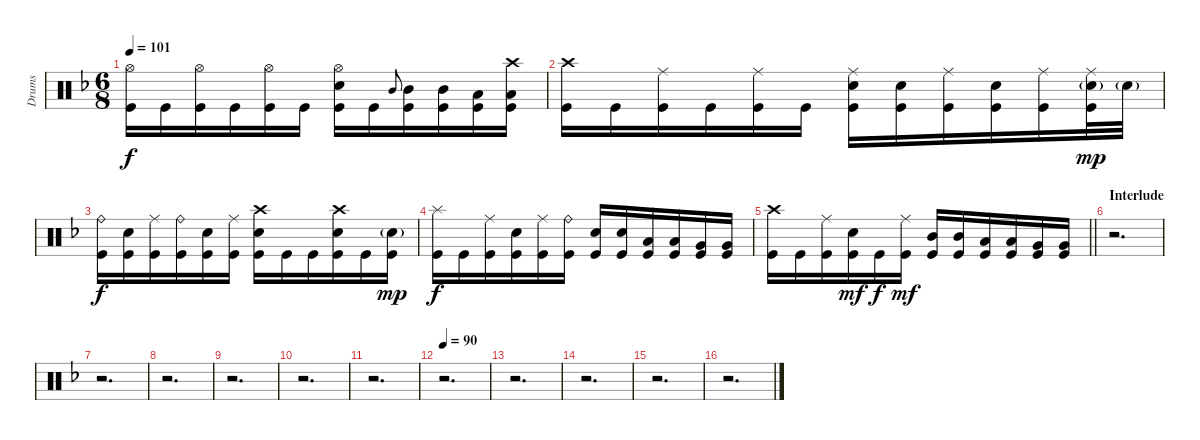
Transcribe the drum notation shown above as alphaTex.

\track ("Drums" "Drums") {instrument percussion bank 10}
\staff {score}
\articulation defaults
\ts (6 8)
\tempo 101
\clef neutral
\ks dminor
("Hi-Hat (open)" "Kick (hit)").16{dy f} "Kick (hit)".16 ("Hi-Hat (open)" "Kick (hit)").16 "Kick (hit)".16 ("Hi-Hat (open)" "Kick (hit)").16 "Kick (hit)".16 ("Hi-Hat (open)" "Electric Snare (hit)" "Kick (hit)").16 "Kick (hit)".16 "Mid Tom (hit)".8{gr onbeat} ("Mid Tom (hit)" "Kick (hit)").16 ("Mid Tom (hit)" "Kick (hit)").16 ("Low Tom (hit)" "Kick (hit)").16 ("Crash high (hit)" "Low Tom (hit)" "Kick (hit)").16 |
("Crash high (hit)" "Kick (hit)").16 "Kick (hit)".16 ("Ride (middle)" "Kick (hit)").16 "Kick (hit)".16 ("Ride (middle)" "Kick (hit)").16 "Kick (hit)".16 ("Ride (middle)" "Electric Snare (hit)" "Kick (hit)").16 ("Electric Snare (hit)" "Kick (hit)").16 ("Ride (middle)" "Kick (hit)").16 ("Electric Snare (hit)" "Kick (hit)").16 ("Ride (middle)" "Kick (hit)").16 ("Ride (middle)" "Electric Snare (hit)"{g} "Kick (hit)").32{dy mp} "Electric Snare (hit)"{g}.32 |
("Ride (bell)" "Kick (hit)").16{dy f} ("Electric Snare (hit)" "Kick (hit)").16 ("Ride (middle)" "Kick (hit)").16 ("Ride (bell)" "Kick (hit)").16 ("Electric Snare (hit)" "Kick (hit)").16 ("Ride (middle)" "Kick (hit)").16 ("Crash high (hit)" "Electric Snare (hit)" "Kick (hit)").16 "Kick (hit)".16 "Kick (hit)".16 ("Crash high (hit)" "Electric Snare (hit)" "Kick (hit)").16 "Kick (hit)".16 ("Electric Snare (hit)"{g} "Kick (hit)").16{dy mp} |
("Splash (hit)" "Kick (hit)").16{dy f} "Kick (hit)".16 ("Ride (middle)" "Kick (hit)").16 ("Electric Snare (hit)" "Kick (hit)").16 ("Ride (middle)" "Kick (hit)").16 ("Ride (bell)" "Kick (hit)").16 ("Electric Snare (hit)" "Kick (hit)").16 ("Electric Snare (hit)" "Kick (hit)").16 ("Low Tom (hit)" "Kick (hit)").16 ("Low Tom (hit)" "Kick (hit)").16 ("Very Low Tom (hit)" "Kick (hit)").16 ("Very Low Tom (hit)" "Kick (hit)").16 |
\barLineRight lightlight
("Crash high (hit)" "Kick (hit)").16 "Kick (hit)".16 ("Ride (middle)" "Kick (hit)").16 ("Electric Snare (hit)" "Kick (hit)").16{dy mf} "Kick (hit)".16{dy f} ("Ride (middle)" "Kick (hit)").16{dy mf} ("Mid Tom (hit)" "Kick (hit)").16 ("Mid Tom (hit)" "Kick (hit)").16 ("Low Tom (hit)" "Kick (hit)").16 ("Low Tom (hit)" "Kick (hit)").16 ("Very Low Tom (hit)" "Kick (hit)").16 ("Very Low Tom (hit)" "Kick (hit)").16 |
\section ("" "Interlude")
r.2{d} |
r.2{d} |
r.2{d} |
r.2{d} |
r.2{d} |
r.2{d} |
\tempo 90
r.2{d} |
r.2{d} |
r.2{d} |
r.2{d} |
r.2{d}
